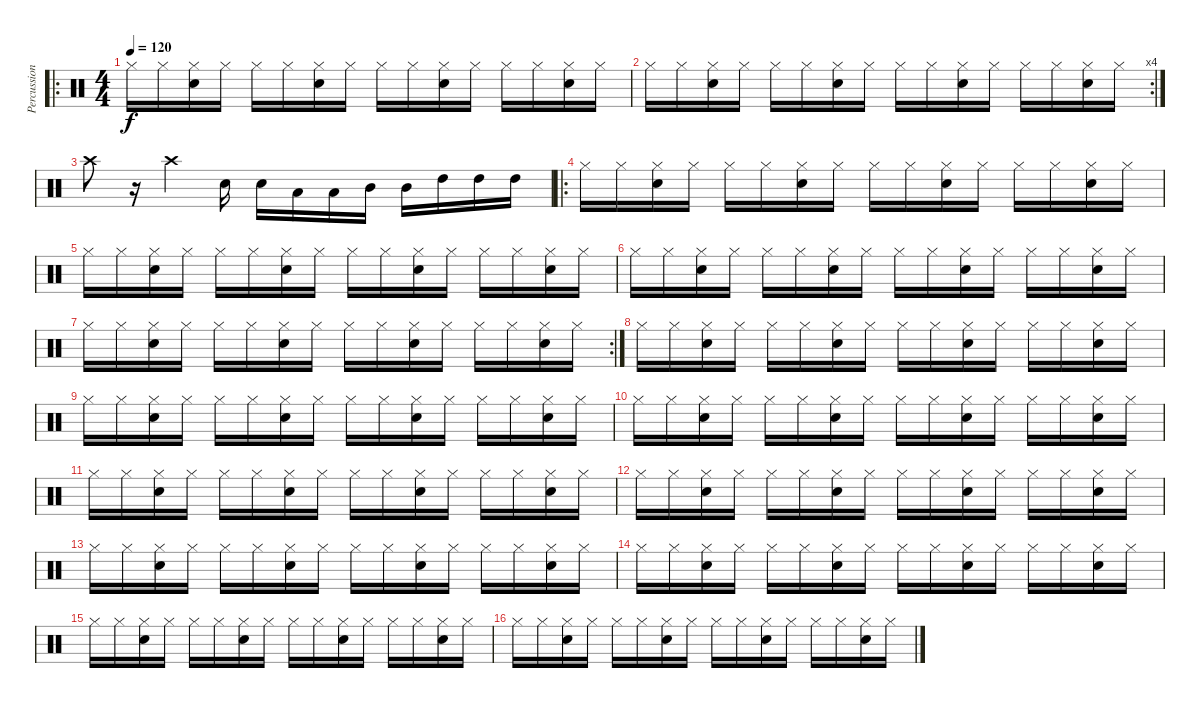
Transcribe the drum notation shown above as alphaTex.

\track ("Percussions" "Percussion") {instrument percussion}
\staff {score}
\articulation defaults
\ro
\ts (4 4)
\tempo 120
\clef neutral
\ks c "Hi-Hat (closed)".16{dy f} "Hi-Hat (closed)".16
("Hi-Hat (closed)" "Snare (hit) 2").16 "Hi-Hat (closed)".16 "Hi-Hat (closed)".16 "Hi-Hat (closed)".16 ("Hi-Hat (closed)" "Snare (hit) 2").16 "Hi-Hat (closed)".16 "Hi-Hat (closed)".16 "Hi-Hat (closed)".16 ("Hi-Hat (closed)" "Snare (hit) 2").16 "Hi-Hat (closed)".16 "Hi-Hat (closed)".16 "Hi-Hat (closed)".16 ("Hi-Hat (closed)" "Snare (hit) 2").16 "Hi-Hat (closed)".16 |
\rc 4 "Hi-Hat (closed)".16 "Hi-Hat (closed)".16
("Hi-Hat (closed)" "Snare (hit) 2").16 "Hi-Hat (closed)".16 "Hi-Hat (closed)".16 "Hi-Hat (closed)".16 ("Hi-Hat (closed)" "Snare (hit) 2").16 "Hi-Hat (closed)".16 "Hi-Hat (closed)".16 "Hi-Hat (closed)".16 ("Hi-Hat (closed)" "Snare (hit) 2").16 "Hi-Hat (closed)".16 "Hi-Hat (closed)".16 "Hi-Hat (closed)".16 ("Hi-Hat (closed)" "Snare (hit) 2").16 "Hi-Hat (closed)".16 |
"Crash high (hit)".8 r.16 "Crash high (hit)".4 "Snare (hit) 2".16 "Snare (hit) 2".16 "Low Floor Tom (hit)".16 "Low Floor Tom (hit)".16 "Mid Tom (hit)".16 "Mid Tom (hit)".16 "High Tom (hit)".16 "High Tom (hit)".16 "High Tom (hit)".16 |
\ro "Hi-Hat (closed)".16 "Hi-Hat (closed)".16
("Hi-Hat (closed)" "Snare (hit) 2").16 "Hi-Hat (closed)".16 "Hi-Hat (closed)".16 "Hi-Hat (closed)".16 ("Hi-Hat (closed)" "Snare (hit) 2").16 "Hi-Hat (closed)".16 "Hi-Hat (closed)".16 "Hi-Hat (closed)".16 ("Hi-Hat (closed)" "Snare (hit) 2").16 "Hi-Hat (closed)".16 "Hi-Hat (closed)".16 "Hi-Hat (closed)".16 ("Hi-Hat (closed)" "Snare (hit) 2").16 "Hi-Hat (closed)".16 |
"Hi-Hat (closed)".16 "Hi-Hat (closed)".16 ("Hi-Hat (closed)" "Snare (hit) 2").16 "Hi-Hat (closed)".16 "Hi-Hat (closed)".16 "Hi-Hat (closed)".16 ("Hi-Hat (closed)" "Snare (hit) 2").16 "Hi-Hat (closed)".16 "Hi-Hat (closed)".16 "Hi-Hat (closed)".16 ("Hi-Hat (closed)" "Snare (hit) 2").16 "Hi-Hat (closed)".16 "Hi-Hat (closed)".16 "Hi-Hat (closed)".16 ("Hi-Hat (closed)" "Snare (hit) 2").16 "Hi-Hat (closed)".16 |
"Hi-Hat (closed)".16 "Hi-Hat (closed)".16 ("Hi-Hat (closed)" "Snare (hit) 2").16 "Hi-Hat (closed)".16 "Hi-Hat (closed)".16 "Hi-Hat (closed)".16 ("Hi-Hat (closed)" "Snare (hit) 2").16 "Hi-Hat (closed)".16 "Hi-Hat (closed)".16 "Hi-Hat (closed)".16 ("Hi-Hat (closed)" "Snare (hit) 2").16 "Hi-Hat (closed)".16 "Hi-Hat (closed)".16 "Hi-Hat (closed)".16 ("Hi-Hat (closed)" "Snare (hit) 2").16 "Hi-Hat (closed)".16 |
\rc 2 "Hi-Hat (closed)".16 "Hi-Hat (closed)".16
("Hi-Hat (closed)" "Snare (hit) 2").16 "Hi-Hat (closed)".16 "Hi-Hat (closed)".16 "Hi-Hat (closed)".16 ("Hi-Hat (closed)" "Snare (hit) 2").16 "Hi-Hat (closed)".16 "Hi-Hat (closed)".16 "Hi-Hat (closed)".16 ("Hi-Hat (closed)" "Snare (hit) 2").16 "Hi-Hat (closed)".16 "Hi-Hat (closed)".16 "Hi-Hat (closed)".16 ("Hi-Hat (closed)" "Snare (hit) 2").16 "Hi-Hat (closed)".16 |
"Hi-Hat (closed)".16 "Hi-Hat (closed)".16 ("Hi-Hat (closed)" "Snare (hit) 2").16 "Hi-Hat (closed)".16 "Hi-Hat (closed)".16 "Hi-Hat (closed)".16 ("Hi-Hat (closed)" "Snare (hit) 2").16 "Hi-Hat (closed)".16 "Hi-Hat (closed)".16 "Hi-Hat (closed)".16 ("Hi-Hat (closed)" "Snare (hit) 2").16 "Hi-Hat (closed)".16 "Hi-Hat (closed)".16 "Hi-Hat (closed)".16 ("Hi-Hat (closed)" "Snare (hit) 2").16 "Hi-Hat (closed)".16 |
"Hi-Hat (closed)".16 "Hi-Hat (closed)".16 ("Hi-Hat (closed)" "Snare (hit) 2").16 "Hi-Hat (closed)".16 "Hi-Hat (closed)".16 "Hi-Hat (closed)".16 ("Hi-Hat (closed)" "Snare (hit) 2").16 "Hi-Hat (closed)".16 "Hi-Hat (closed)".16 "Hi-Hat (closed)".16 ("Hi-Hat (closed)" "Snare (hit) 2").16 "Hi-Hat (closed)".16 "Hi-Hat (closed)".16 "Hi-Hat (closed)".16 ("Hi-Hat (closed)" "Snare (hit) 2").16 "Hi-Hat (closed)".16 |
"Hi-Hat (closed)".16 "Hi-Hat (closed)".16 ("Hi-Hat (closed)" "Snare (hit) 2").16 "Hi-Hat (closed)".16 "Hi-Hat (closed)".16 "Hi-Hat (closed)".16 ("Hi-Hat (closed)" "Snare (hit) 2").16 "Hi-Hat (closed)".16 "Hi-Hat (closed)".16 "Hi-Hat (closed)".16 ("Hi-Hat (closed)" "Snare (hit) 2").16 "Hi-Hat (closed)".16 "Hi-Hat (closed)".16 "Hi-Hat (closed)".16 ("Hi-Hat (closed)" "Snare (hit) 2").16 "Hi-Hat (closed)".16 |
"Hi-Hat (closed)".16 "Hi-Hat (closed)".16 ("Hi-Hat (closed)" "Snare (hit) 2").16 "Hi-Hat (closed)".16 "Hi-Hat (closed)".16 "Hi-Hat (closed)".16 ("Hi-Hat (closed)" "Snare (hit) 2").16 "Hi-Hat (closed)".16 "Hi-Hat (closed)".16 "Hi-Hat (closed)".16 ("Hi-Hat (closed)" "Snare (hit) 2").16 "Hi-Hat (closed)".16 "Hi-Hat (closed)".16 "Hi-Hat (closed)".16 ("Hi-Hat (closed)" "Snare (hit) 2").16 "Hi-Hat (closed)".16 |
"Hi-Hat (closed)".16 "Hi-Hat (closed)".16 ("Hi-Hat (closed)" "Snare (hit) 2").16 "Hi-Hat (closed)".16 "Hi-Hat (closed)".16 "Hi-Hat (closed)".16 ("Hi-Hat (closed)" "Snare (hit) 2").16 "Hi-Hat (closed)".16 "Hi-Hat (closed)".16 "Hi-Hat (closed)".16 ("Hi-Hat (closed)" "Snare (hit) 2").16 "Hi-Hat (closed)".16 "Hi-Hat (closed)".16 "Hi-Hat (closed)".16 ("Hi-Hat (closed)" "Snare (hit) 2").16 "Hi-Hat (closed)".16 |
"Hi-Hat (closed)".16 "Hi-Hat (closed)".16 ("Hi-Hat (closed)" "Snare (hit) 2").16 "Hi-Hat (closed)".16 "Hi-Hat (closed)".16 "Hi-Hat (closed)".16 ("Hi-Hat (closed)" "Snare (hit) 2").16 "Hi-Hat (closed)".16 "Hi-Hat (closed)".16 "Hi-Hat (closed)".16 ("Hi-Hat (closed)" "Snare (hit) 2").16 "Hi-Hat (closed)".16 "Hi-Hat (closed)".16 "Hi-Hat (closed)".16 ("Hi-Hat (closed)" "Snare (hit) 2").16 "Hi-Hat (closed)".16 |
"Hi-Hat (closed)".16 "Hi-Hat (closed)".16 ("Hi-Hat (closed)" "Snare (hit) 2").16 "Hi-Hat (closed)".16 "Hi-Hat (closed)".16 "Hi-Hat (closed)".16 ("Hi-Hat (closed)" "Snare (hit) 2").16 "Hi-Hat (closed)".16 "Hi-Hat (closed)".16 "Hi-Hat (closed)".16 ("Hi-Hat (closed)" "Snare (hit) 2").16 "Hi-Hat (closed)".16 "Hi-Hat (closed)".16 "Hi-Hat (closed)".16 ("Hi-Hat (closed)" "Snare (hit) 2").16 "Hi-Hat (closed)".16 |
"Hi-Hat (closed)".16 "Hi-Hat (closed)".16 ("Hi-Hat (closed)" "Snare (hit) 2").16 "Hi-Hat (closed)".16 "Hi-Hat (closed)".16 "Hi-Hat (closed)".16 ("Hi-Hat (closed)" "Snare (hit) 2").16 "Hi-Hat (closed)".16 "Hi-Hat (closed)".16 "Hi-Hat (closed)".16 ("Hi-Hat (closed)" "Snare (hit) 2").16 "Hi-Hat (closed)".16 "Hi-Hat (closed)".16 "Hi-Hat (closed)".16 ("Hi-Hat (closed)" "Snare (hit) 2").16 "Hi-Hat (closed)".16 |
"Hi-Hat (closed)".16 "Hi-Hat (closed)".16 ("Hi-Hat (closed)" "Snare (hit) 2").16 "Hi-Hat (closed)".16 "Hi-Hat (closed)".16 "Hi-Hat (closed)".16 ("Hi-Hat (closed)" "Snare (hit) 2").16 "Hi-Hat (closed)".16 "Hi-Hat (closed)".16 "Hi-Hat (closed)".16 ("Hi-Hat (closed)" "Snare (hit) 2").16 "Hi-Hat (closed)".16 "Hi-Hat (closed)".16 "Hi-Hat (closed)".16 ("Hi-Hat (closed)" "Snare (hit) 2").16 "Hi-Hat (closed)".16
